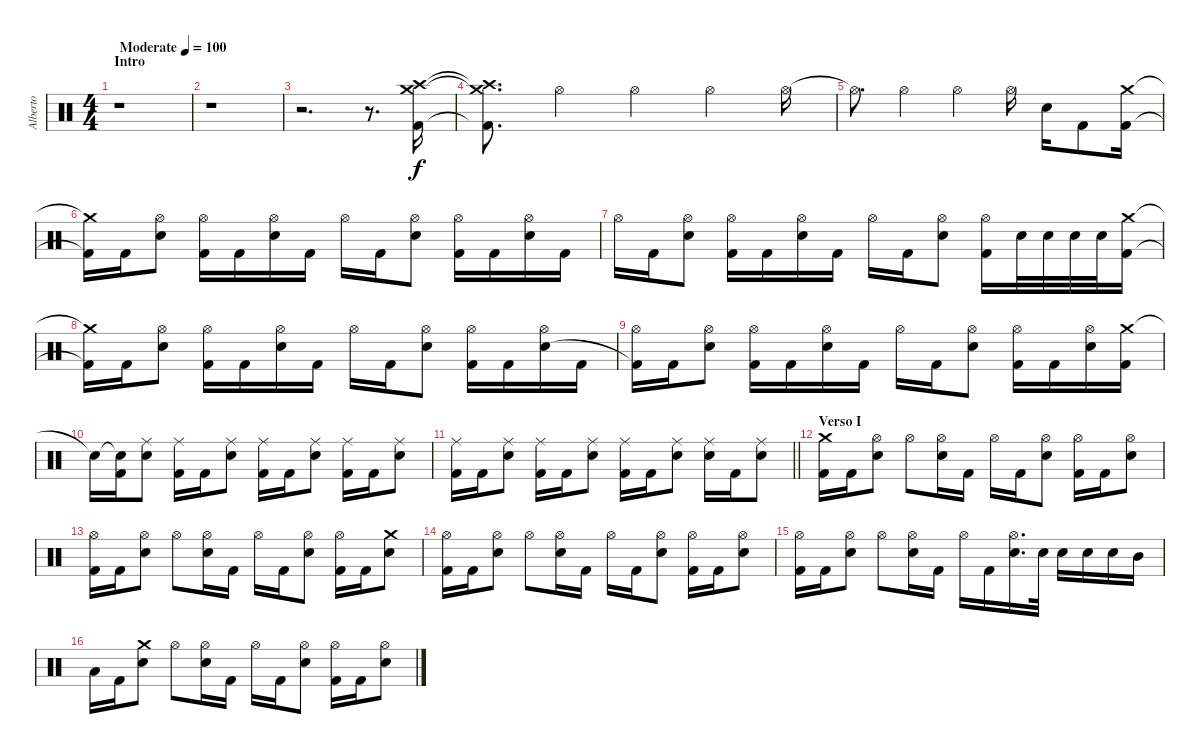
\track ("Alberto" "Alberto") {instrument percussion}
\staff
\articulation defaults
\ts (4 4)
\section ("" "Intro")
\tempo (100 "Moderate")
\clef neutral
\ks c
r.1{dy f} |
r.1 |
r.2{d} r.8{d} ("Crash medium (hit)" "Crash high (hit)" "Kick (hit) 2").16 |
("Crash medium (hit)"{t} "Crash high (hit)"{t} "Kick (hit) 2"{t}).8{d} "Hi-Hat (open)".4 "Hi-Hat (open)".4 "Hi-Hat (open)".4 "Hi-Hat (open)".16 |
"Hi-Hat (open)"{t}.8{d} "Hi-Hat (open)".4 "Hi-Hat (open)".4 "Hi-Hat (open)".16 "Electric Snare (hit)".16 "Kick (hit) 2".8 ("Crash medium (hit)" "Kick (hit) 2").16 |
("Crash medium (hit)"{t} "Kick (hit) 2"{t}).16 "Kick (hit) 2".16 ("Hi-Hat (open)" "Electric Snare (hit)").8 ("Hi-Hat (open)" "Kick (hit) 2").16 "Kick (hit) 2".16 ("Hi-Hat (open)" "Electric Snare (hit)").16 "Kick (hit) 2".16 "Hi-Hat (open)".16 "Kick (hit) 2".16 ("Hi-Hat (open)" "Electric Snare (hit)").8 ("Hi-Hat (open)" "Kick (hit) 2").16 "Kick (hit) 2".16 ("Hi-Hat (open)" "Electric Snare (hit)").16 "Kick (hit) 2".16 |
"Hi-Hat (open)".16 "Kick (hit) 2".16 ("Hi-Hat (open)" "Electric Snare (hit)").8 ("Hi-Hat (open)" "Kick (hit) 2").16 "Kick (hit) 2".16 ("Hi-Hat (open)" "Electric Snare (hit)").16 "Kick (hit) 2".16 "Hi-Hat (open)".16 "Kick (hit) 2".16 ("Hi-Hat (open)" "Electric Snare (hit)").8 ("Hi-Hat (open)" "Kick (hit) 2").16 "Electric Snare (hit)".32 "Electric Snare (hit)".32 "Electric Snare (hit)".32 "Electric Snare (hit)".32 ("Crash medium (hit)" "Kick (hit) 2").16 |
("Crash medium (hit)"{t} "Kick (hit) 2"{t}).16 "Kick (hit) 2".16 ("Hi-Hat (open)" "Electric Snare (hit)").8 ("Hi-Hat (open)" "Kick (hit) 2").16 "Kick (hit) 2".16 ("Hi-Hat (open)" "Electric Snare (hit)").16 "Kick (hit) 2".16 "Hi-Hat (open)".16 "Kick (hit) 2".16 ("Hi-Hat (open)" "Electric Snare (hit)").8 ("Hi-Hat (open)" "Kick (hit) 2").16 "Kick (hit) 2".16 ("Hi-Hat (open)" "Electric Snare (hit)").16 "Kick (hit) 2".16 |
("Hi-Hat (open)" "Kick (hit) 2"{t}).16 "Kick (hit) 2".16 ("Hi-Hat (open)" "Electric Snare (hit)").8 ("Hi-Hat (open)" "Kick (hit) 2").16 "Kick (hit) 2".16 ("Hi-Hat (open)" "Electric Snare (hit)").16 "Kick (hit) 2".16 "Hi-Hat (open)".16 "Kick (hit) 2".16 ("Hi-Hat (open)" "Electric Snare (hit)").8 ("Hi-Hat (open)" "Kick (hit) 2").16 "Kick (hit) 2".16 ("Hi-Hat (open)" "Electric Snare (hit)").16 ("Crash medium (hit)" "Kick (hit) 2").16 |
"Snare (hit)"{t}.16 ("Snare (hit)"{t} "Kick (hit) 2").16 ("Ride (middle)" "Electric Snare (hit)").8 ("Ride (middle)" "Kick (hit) 2").16 "Kick (hit) 2".16 ("Ride (middle)" "Electric Snare (hit)").8 ("Ride (middle)" "Kick (hit) 2").16 "Kick (hit) 2".16 ("Ride (middle)" "Electric Snare (hit)").8 ("Ride (middle)" "Kick (hit) 2").16 "Kick (hit) 2".16 ("Ride (middle)" "Electric Snare (hit)").8 |
\barLineRight lightlight
("Ride (middle)" "Kick (hit) 2").16 "Kick (hit) 2".16 ("Ride (middle)" "Electric Snare (hit)").8 ("Ride (middle)" "Kick (hit) 2").16 "Kick (hit) 2".16 ("Ride (middle)" "Electric Snare (hit)").8 ("Ride (middle)" "Kick (hit) 2").16 "Kick (hit) 2".16 ("Ride (middle)" "Electric Snare (hit)").8 ("Ride (middle)" "Electric Snare (hit)").16 "Kick (hit) 2".16 ("Ride (middle)" "Electric Snare (hit)").8 |
\section ("" "Verso I")
("Crash medium (hit)" "Kick (hit) 2").16 "Kick (hit) 2".16 ("Hi-Hat (open)" "Electric Snare (hit)").8 "Hi-Hat (open)".8 ("Hi-Hat (open)" "Electric Snare (hit)").16 "Kick (hit) 2".16 "Hi-Hat (open)".16 "Kick (hit) 2".16 ("Hi-Hat (open)" "Electric Snare (hit)").8 ("Hi-Hat (open)" "Kick (hit) 2").16 "Kick (hit) 2".16 ("Hi-Hat (open)" "Electric Snare (hit)").8 |
("Hi-Hat (open)" "Kick (hit) 2").16 "Kick (hit) 2".16 ("Hi-Hat (open)" "Electric Snare (hit)").8 "Hi-Hat (open)".8 ("Hi-Hat (open)" "Electric Snare (hit)").16 "Kick (hit) 2".16 "Hi-Hat (open)".16 "Kick (hit) 2".16 ("Hi-Hat (open)" "Electric Snare (hit)").8 ("Hi-Hat (open)" "Kick (hit) 2").16 "Kick (hit) 2".16 ("Crash medium (hit)" "Electric Snare (hit)").8 |
("Hi-Hat (open)" "Kick (hit) 2").16 "Kick (hit) 2".16 ("Hi-Hat (open)" "Electric Snare (hit)").8 "Hi-Hat (open)".8 ("Hi-Hat (open)" "Electric Snare (hit)").16 "Kick (hit) 2".16 "Hi-Hat (open)".16 "Kick (hit) 2".16 ("Hi-Hat (open)" "Electric Snare (hit)").8 ("Hi-Hat (open)" "Kick (hit) 2").16 "Kick (hit) 2".16 ("Hi-Hat (open)" "Electric Snare (hit)").8 |
("Hi-Hat (open)" "Kick (hit) 2").16 "Kick (hit) 2".16 ("Hi-Hat (open)" "Electric Snare (hit)").8 "Hi-Hat (open)".8 ("Hi-Hat (open)" "Electric Snare (hit)").16 "Kick (hit) 2".16 "Hi-Hat (open)".16 "Kick (hit) 2".16 ("Hi-Hat (open)" "Electric Snare (hit)").16{d} "Electric Snare (hit)".32 "Electric Snare (hit)".16 "Electric Snare (hit)".16 "Electric Snare (hit)".16 "Mid Tom (hit)".16 |
"Low Tom (hit)".16 "Kick (hit) 2".16 ("Crash medium (hit)" "Electric Snare (hit)").8 "Hi-Hat (open)".8 ("Hi-Hat (open)" "Electric Snare (hit)").16 "Kick (hit) 2".16 "Hi-Hat (open)".16 "Kick (hit) 2".16 ("Hi-Hat (open)" "Electric Snare (hit)").8 ("Hi-Hat (open)" "Kick (hit) 2").16 "Kick (hit) 2".16 ("Hi-Hat (open)" "Electric Snare (hit)").8
